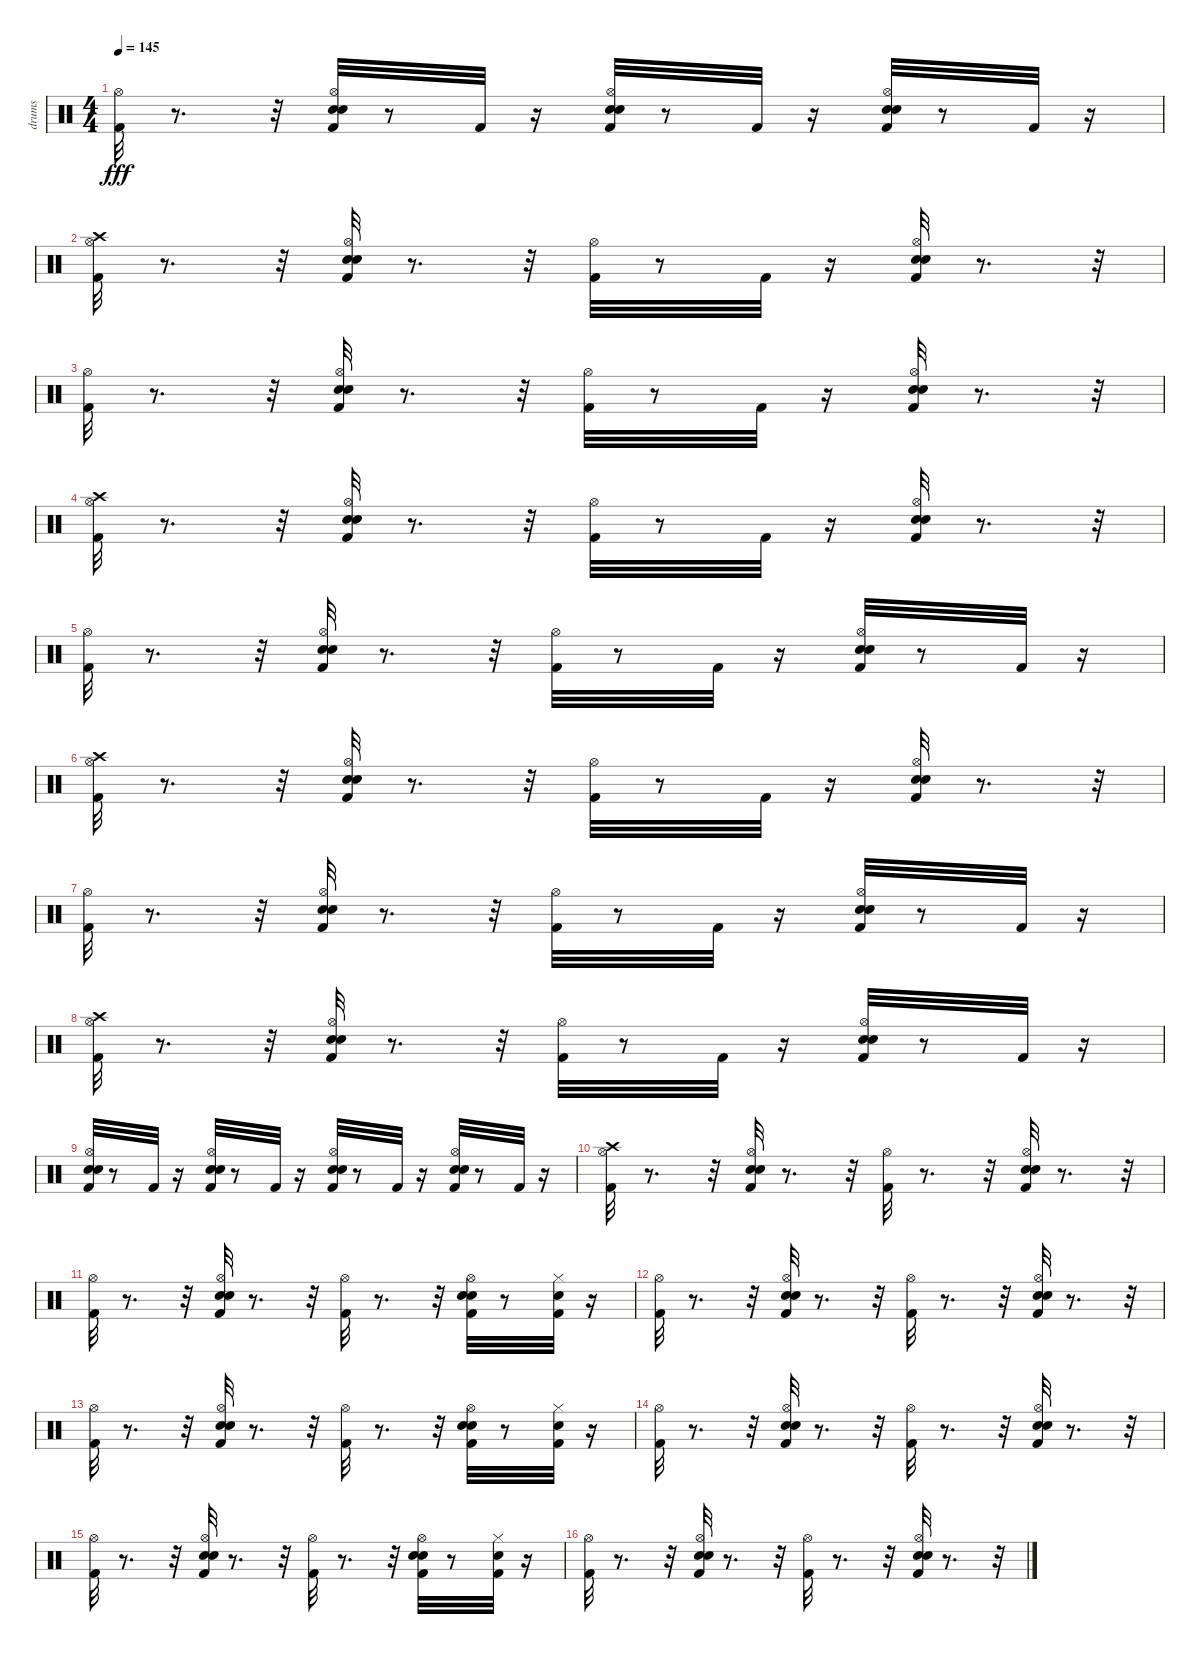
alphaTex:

\track ("drums" "drums") {instrument percussion}
\staff {score}
\articulation defaults
\ts (4 4)
\tempo 145
\clef neutral
\ks c
("Kick (hit) 2" "Hi-Hat (open)").32{dy fff} r.8{d} r.32 ("Hi-Hat (open)" "Kick (hit) 2" "Snare (hit) 2" "Electric Snare (hit)").32 r.8 "Kick (hit) 2".32 r.16 ("Hi-Hat (open)" "Kick (hit) 2" "Snare (hit) 2" "Electric Snare (hit)").32 r.8 "Kick (hit) 2".32 r.16 ("Hi-Hat (open)" "Kick (hit) 2" "Snare (hit) 2" "Electric Snare (hit)").32 r.8 "Kick (hit) 2".32 r.16 |
("Crash high (hit)" "Hi-Hat (open)" "Kick (hit) 2").32 r.8{d} r.32 ("Hi-Hat (open)" "Kick (hit) 2" "Snare (hit) 2" "Electric Snare (hit)").32 r.8{d} r.32 ("Hi-Hat (open)" "Kick (hit) 2").32 r.8 "Kick (hit) 2".32 r.16 ("Hi-Hat (open)" "Kick (hit) 2" "Snare (hit) 2" "Electric Snare (hit)").32 r.8{d} r.32 |
("Kick (hit) 2" "Hi-Hat (open)").32 r.8{d} r.32 ("Hi-Hat (open)" "Kick (hit) 2" "Snare (hit) 2" "Electric Snare (hit)").32 r.8{d} r.32 ("Hi-Hat (open)" "Kick (hit) 2").32 r.8 "Kick (hit) 2".32 r.16 ("Hi-Hat (open)" "Kick (hit) 2" "Snare (hit) 2" "Electric Snare (hit)").32 r.8{d} r.32 |
("Kick (hit) 2" "Hi-Hat (open)" "Crash high (hit)").32 r.8{d} r.32 ("Hi-Hat (open)" "Kick (hit) 2" "Snare (hit) 2" "Electric Snare (hit)").32 r.8{d} r.32 ("Hi-Hat (open)" "Kick (hit) 2").32 r.8 "Kick (hit) 2".32 r.16 ("Hi-Hat (open)" "Kick (hit) 2" "Snare (hit) 2" "Electric Snare (hit)").32 r.8{d} r.32 |
("Kick (hit) 2" "Hi-Hat (open)").32 r.8{d} r.32 ("Hi-Hat (open)" "Kick (hit) 2" "Snare (hit) 2" "Electric Snare (hit)").32 r.8{d} r.32 ("Hi-Hat (open)" "Kick (hit) 2").32 r.8 "Kick (hit) 2".32 r.16 ("Hi-Hat (open)" "Kick (hit) 2" "Snare (hit) 2" "Electric Snare (hit)").32 r.8 "Kick (hit) 2".32 r.16 |
("Kick (hit) 2" "Hi-Hat (open)" "Crash high (hit)").32 r.8{d} r.32 ("Hi-Hat (open)" "Kick (hit) 2" "Snare (hit) 2" "Electric Snare (hit)").32 r.8{d} r.32 ("Hi-Hat (open)" "Kick (hit) 2").32 r.8 "Kick (hit) 2".32 r.16 ("Hi-Hat (open)" "Kick (hit) 2" "Snare (hit) 2" "Electric Snare (hit)").32 r.8{d} r.32 |
("Kick (hit) 2" "Hi-Hat (open)").32 r.8{d} r.32 ("Hi-Hat (open)" "Kick (hit) 2" "Snare (hit) 2" "Electric Snare (hit)").32 r.8{d} r.32 ("Hi-Hat (open)" "Kick (hit) 2").32 r.8 "Kick (hit) 2".32 r.16 ("Hi-Hat (open)" "Kick (hit) 2" "Snare (hit) 2" "Electric Snare (hit)").32 r.8 "Kick (hit) 2".32 r.16 |
("Kick (hit) 2" "Hi-Hat (open)" "Crash high (hit)").32 r.8{d} r.32 ("Hi-Hat (open)" "Kick (hit) 2" "Snare (hit) 2" "Electric Snare (hit)").32 r.8{d} r.32 ("Hi-Hat (open)" "Kick (hit) 2").32 r.8 "Kick (hit) 2".32 r.16 ("Hi-Hat (open)" "Kick (hit) 2" "Snare (hit) 2" "Electric Snare (hit)").32 r.8 "Kick (hit) 2".32 r.16 |
("Hi-Hat (open)" "Electric Snare (hit)" "Snare (hit) 2" "Kick (hit) 2").32 r.8 "Kick (hit) 2".32 r.16 ("Hi-Hat (open)" "Electric Snare (hit)" "Snare (hit) 2" "Kick (hit) 2").32 r.8 "Kick (hit) 2".32 r.16 ("Hi-Hat (open)" "Electric Snare (hit)" "Kick (hit) 2" "Snare (hit) 2").32 r.8 "Kick (hit) 2".32 r.16 ("Hi-Hat (open)" "Electric Snare (hit)" "Kick (hit) 2" "Snare (hit) 2").32 r.8 "Kick (hit) 2".32 r.16 |
("Kick (hit) 2" "Hi-Hat (open)" "Crash high (hit)").32 r.8{d} r.32 ("Electric Snare (hit)" "Snare (hit) 2" "Kick (hit) 2" "Hi-Hat (open)").32 r.8{d} r.32 ("Kick (hit) 2" "Hi-Hat (open)").32 r.8{d} r.32 ("Snare (hit) 2" "Kick (hit) 2" "Electric Snare (hit)" "Hi-Hat (open)").32 r.8{d} r.32 |
("Hi-Hat (open)" "Kick (hit) 2").32 r.8{d} r.32 ("Hi-Hat (open)" "Kick (hit) 2" "Snare (hit) 2" "Electric Snare (hit)").32 r.8{d} r.32 ("Hi-Hat (open)" "Kick (hit) 2").32 r.8{d} r.32 ("Hi-Hat (open)" "Kick (hit) 2" "Snare (hit) 2" "Electric Snare (hit)").32 r.8 ("Snare (hit) 2" "Kick (hit) 2" "Hi-Hat (closed)").32 r.16 |
("Hi-Hat (open)" "Kick (hit) 2").32 r.8{d} r.32 ("Electric Snare (hit)" "Snare (hit) 2" "Kick (hit) 2" "Hi-Hat (open)").32 r.8{d} r.32 ("Kick (hit) 2" "Hi-Hat (open)").32 r.8{d} r.32 ("Snare (hit) 2" "Kick (hit) 2" "Electric Snare (hit)" "Hi-Hat (open)").32 r.8{d} r.32 |
("Hi-Hat (open)" "Kick (hit) 2").32 r.8{d} r.32 ("Hi-Hat (open)" "Kick (hit) 2" "Snare (hit) 2" "Electric Snare (hit)").32 r.8{d} r.32 ("Hi-Hat (open)" "Kick (hit) 2").32 r.8{d} r.32 ("Hi-Hat (open)" "Kick (hit) 2" "Snare (hit) 2" "Electric Snare (hit)").32 r.8 ("Snare (hit) 2" "Kick (hit) 2" "Hi-Hat (closed)").32 r.16 |
("Hi-Hat (open)" "Kick (hit) 2").32 r.8{d} r.32 ("Electric Snare (hit)" "Snare (hit) 2" "Kick (hit) 2" "Hi-Hat (open)").32 r.8{d} r.32 ("Kick (hit) 2" "Hi-Hat (open)").32 r.8{d} r.32 ("Snare (hit) 2" "Kick (hit) 2" "Electric Snare (hit)" "Hi-Hat (open)").32 r.8{d} r.32 |
("Hi-Hat (open)" "Kick (hit) 2").32 r.8{d} r.32 ("Hi-Hat (open)" "Kick (hit) 2" "Snare (hit) 2" "Electric Snare (hit)").32 r.8{d} r.32 ("Hi-Hat (open)" "Kick (hit) 2").32 r.8{d} r.32 ("Hi-Hat (open)" "Kick (hit) 2" "Snare (hit) 2" "Electric Snare (hit)").32 r.8 ("Snare (hit) 2" "Kick (hit) 2" "Hi-Hat (closed)").32 r.16 |
("Hi-Hat (open)" "Kick (hit) 2").32 r.8{d} r.32 ("Electric Snare (hit)" "Snare (hit) 2" "Kick (hit) 2" "Hi-Hat (open)").32 r.8{d} r.32 ("Kick (hit) 2" "Hi-Hat (open)").32 r.8{d} r.32 ("Snare (hit) 2" "Kick (hit) 2" "Electric Snare (hit)" "Hi-Hat (open)").32 r.8{d} r.32
